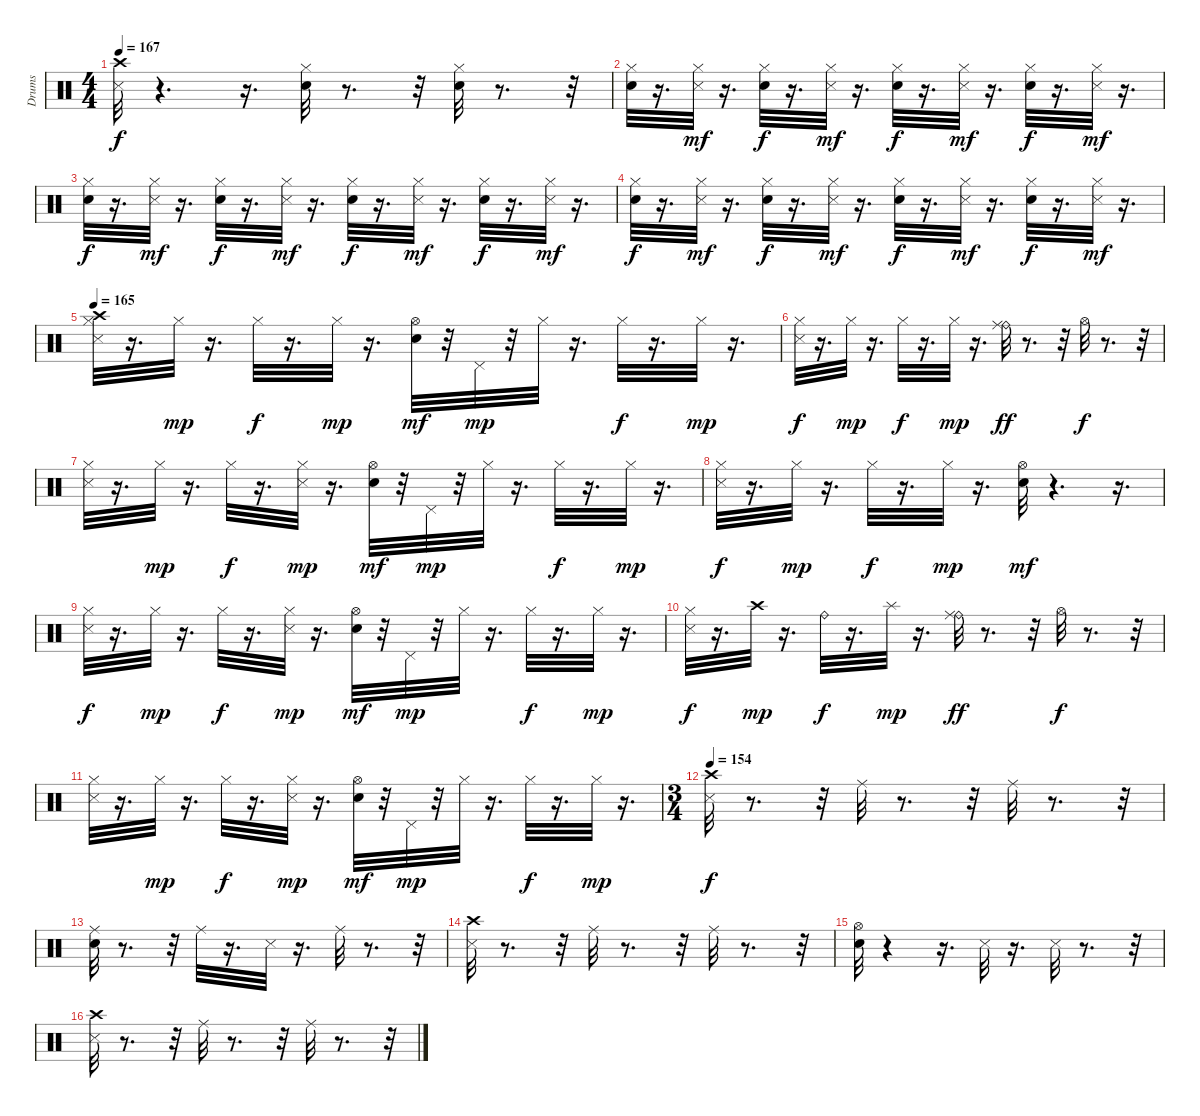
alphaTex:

\track ("Drums" "Drums") {instrument percussion}
\staff {score}
\articulation defaults
\ts (4 4)
\tempo 167
\clef neutral
\ks c
("Crash high (hit)" "Metronome (hit)").32{dy f} r.4{d} r.16{d} ("Hi-Hat (closed)" "Snare (hit) 2").32 r.8{d} r.32 ("Hi-Hat (closed)" "Snare (hit) 2").32 r.8{d} r.32 |
("Snare (hit) 2" "Hi-Hat (closed)").32 r.16{d} ("Hi-Hat (closed)" "Metronome (hit)").32{dy mf} r.16{d} ("Hi-Hat (closed)" "Snare (hit) 2").32{dy f} r.16{d} ("Hi-Hat (closed)" "Metronome (hit)").32{dy mf} r.16{d} ("Hi-Hat (closed)" "Snare (hit) 2").32{dy f} r.16{d} ("Hi-Hat (closed)" "Metronome (hit)").32{dy mf} r.16{d} ("Snare (hit) 2" "Hi-Hat (closed)").32{dy f} r.16{d} ("Metronome (hit)" "Hi-Hat (closed)").32{dy mf} r.16{d} |
("Snare (hit) 2" "Hi-Hat (closed)").32{dy f} r.16{d} ("Hi-Hat (closed)" "Metronome (hit)").32{dy mf} r.16{d} ("Hi-Hat (closed)" "Snare (hit) 2").32{dy f} r.16{d} ("Hi-Hat (closed)" "Metronome (hit)").32{dy mf} r.16{d} ("Hi-Hat (closed)" "Snare (hit) 2").32{dy f} r.16{d} ("Hi-Hat (closed)" "Metronome (hit)").32{dy mf} r.16{d} ("Snare (hit) 2" "Hi-Hat (closed)").32{dy f} r.16{d} ("Metronome (hit)" "Hi-Hat (closed)").32{dy mf} r.16{d} |
("Snare (hit) 2" "Hi-Hat (closed)").32{dy f} r.16{d} ("Hi-Hat (closed)" "Metronome (hit)").32{dy mf} r.16{d} ("Hi-Hat (closed)" "Snare (hit) 2").32{dy f} r.16{d} ("Hi-Hat (closed)" "Metronome (hit)").32{dy mf} r.16{d} ("Hi-Hat (closed)" "Snare (hit) 2").32{dy f} r.16{d} ("Hi-Hat (closed)" "Metronome (hit)").32{dy mf} r.16{d} ("Snare (hit) 2" "Hi-Hat (closed)").32{dy f} r.16{d} ("Metronome (hit)" "Hi-Hat (closed)").32{dy mf} r.16{d} |
\tempo 165
("Crash high (hit)" "Metronome (hit)" "Hi-Hat (closed)").32 r.16{d} "Hi-Hat (closed)".32{dy mp} r.16{d} "Hi-Hat (closed)".32{dy f} r.16{d} "Hi-Hat (closed)".32{dy mp} r.16{d} ("Snare (hit) 2" "Hi-Hat (open)").32{dy mf} r.32 "Pedal Hi-Hat (hit)".32{dy mp} r.32 "Hi-Hat (closed)".32 r.16{d} "Hi-Hat (closed)".32{dy f} r.16{d} "Hi-Hat (closed)".32{dy mp} r.16{d} |
("Metronome (hit)" "Hi-Hat (closed)").32{dy f} r.16{d} "Hi-Hat (closed)".32{dy mp} r.16{d} "Hi-Hat (closed)".32{dy f} r.16{d} "Hi-Hat (closed)".32{dy mp} r.16{d} ("Ride (bell)" "Ride (middle)").32{dy ff} r.8{d} r.32 "Hi-Hat (open)".32{dy f} r.8{d} r.32 |
("Metronome (hit)" "Hi-Hat (closed)").32 r.16{d} "Hi-Hat (closed)".32{dy mp} r.16{d} "Hi-Hat (closed)".32{dy f} r.16{d} ("Metronome (hit)" "Hi-Hat (closed)").32{dy mp} r.16{d} ("Snare (hit) 2" "Hi-Hat (open)").32{dy mf} r.32 "Pedal Hi-Hat (hit)".32{dy mp} r.32 "Hi-Hat (closed)".32 r.16{d} "Hi-Hat (closed)".32{dy f} r.16{d} "Hi-Hat (closed)".32{dy mp} r.16{d} |
("Metronome (hit)" "Hi-Hat (closed)").32{dy f} r.16{d} "Hi-Hat (closed)".32{dy mp} r.16{d} "Hi-Hat (closed)".32{dy f} r.16{d} "Hi-Hat (closed)".32{dy mp} r.16{d} ("Snare (hit) 2" "Hi-Hat (open)").32{dy mf} r.4{d} r.16{d} |
("Metronome (hit)" "Hi-Hat (closed)").32{dy f} r.16{d} "Hi-Hat (closed)".32{dy mp} r.16{d} "Hi-Hat (closed)".32{dy f} r.16{d} ("Metronome (hit)" "Hi-Hat (closed)").32{dy mp} r.16{d} ("Snare (hit) 2" "Hi-Hat (open)").32{dy mf} r.32 "Pedal Hi-Hat (hit)".32{dy mp} r.32 "Hi-Hat (closed)".32 r.16{d} "Hi-Hat (closed)".32{dy f} r.16{d} "Hi-Hat (closed)".32{dy mp} r.16{d} |
("Metronome (hit)" "Hi-Hat (closed)").32{dy f} r.16{d} "Crash high (hit)".32{dy mp} r.16{d} "Ride (bell)".32{dy f} r.16{d} "Splash (hit)".32{dy mp} r.16{d} ("Ride (bell)" "Ride (middle)").32{dy ff} r.8{d} r.32 "Hi-Hat (open)".32{dy f} r.8{d} r.32 |
("Metronome (hit)" "Hi-Hat (closed)").32 r.16{d} "Hi-Hat (closed)".32{dy mp} r.16{d} "Hi-Hat (closed)".32{dy f} r.16{d} ("Metronome (hit)" "Hi-Hat (closed)").32{dy mp} r.16{d} ("Snare (hit) 2" "Hi-Hat (open)").32{dy mf} r.32 "Pedal Hi-Hat (hit)".32{dy mp} r.32 "Hi-Hat (closed)".32 r.16{d} "Hi-Hat (closed)".32{dy f} r.16{d} "Hi-Hat (closed)".32{dy mp} r.16{d} |
\ts (3 4)
\tempo 154
("Crash high (hit)" "Metronome (hit)").32{dy f} r.8{d} r.32 "Ride (middle)".32 r.8{d} r.32 "Ride (middle)".32 r.8{d} r.32 |
("Ride (middle)" "Snare (hit) 2").32 r.8{d} r.32 "Ride (middle)".32 r.16{d} "Metronome (hit)".32 r.16{d} "Ride (middle)".32 r.8{d} r.32 |
("Crash high (hit)" "Metronome (hit)").32 r.8{d} r.32 "Ride (middle)".32 r.8{d} r.32 "Ride (middle)".32 r.8{d} r.32 |
("Hi-Hat (open)" "Snare (hit) 2").32 r.4 r.16{d} "Metronome (hit)".32 r.16{d} "Metronome (hit)".32 r.8{d} r.32 |
("Crash high (hit)" "Metronome (hit)").32 r.8{d} r.32 "Ride (middle)".32 r.8{d} r.32 "Ride (middle)".32 r.8{d} r.32
